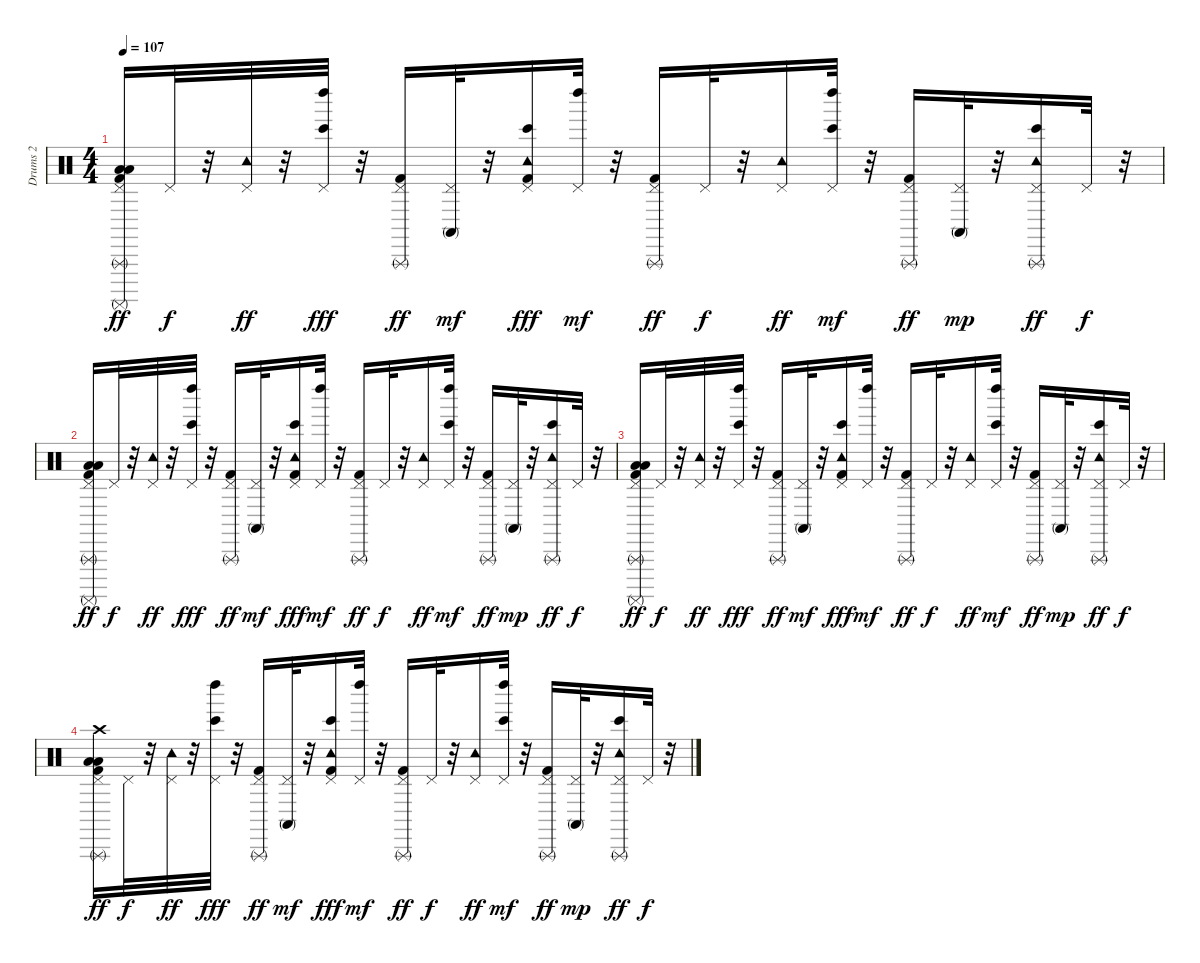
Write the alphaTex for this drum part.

\track ("Drums 2" "Drums 2") {instrument percussion}
\staff {score}
\articulation defaults
\ts (4 4)
\tempo 107
\clef neutral
\ks c
("Kick (hit) 2" "Pedal Hi-Hat (hit)" "Low Tom (hit)" "Low Floor Tom (hit)" "Surdo (mute)" "Triangle (rnute)").16{dy ff} "Pedal Hi-Hat (hit)".32{dy f} r.32 ("Tambourine (hit)" "Pedal Hi-Hat (hit)").32{dy ff} r.32 ("Pedal Hi-Hat (hit)" "Bongo High (hit)" "Left Maraca (hit)").32{dy fff} r.32 ("Kick (hit) 2" "Pedal Hi-Hat (hit)" "Triangle (rnute)").16{dy ff} ("Pedal Hi-Hat (hit)" "Conga high (mute)").32{dy mf} r.32 ("Kick (hit) 2" "Tambourine (hit)" "Pedal Hi-Hat (hit)" "Bongo High (hit)").16{dy fff} ("Pedal Hi-Hat (hit)" "Left Maraca (hit)").32{dy mf} r.32 ("Kick (hit) 2" "Pedal Hi-Hat (hit)" "Triangle (rnute)").16{dy ff} "Pedal Hi-Hat (hit)".32{dy f} r.32 ("Tambourine (hit)" "Pedal Hi-Hat (hit)").16{dy ff} ("Pedal Hi-Hat (hit)" "Bongo High (hit)" "Left Maraca (hit)").32{dy mf} r.32 ("Kick (hit) 2" "Pedal Hi-Hat (hit)" "Triangle (rnute)").16{dy ff} ("Pedal Hi-Hat (hit)" "Conga high (mute)").32{dy mp} r.32 ("Tambourine (hit)" "Pedal Hi-Hat (hit)" "Bongo High (hit)" "Triangle (rnute)").16{dy ff} "Pedal Hi-Hat (hit)".32{dy f} r.32 |
("Kick (hit) 2" "Pedal Hi-Hat (hit)" "Low Tom (hit)" "Low Floor Tom (hit)" "Surdo (mute)" "Triangle (rnute)").16{dy ff} "Pedal Hi-Hat (hit)".32{dy f} r.32 ("Tambourine (hit)" "Pedal Hi-Hat (hit)").32{dy ff} r.32 ("Pedal Hi-Hat (hit)" "Bongo High (hit)" "Left Maraca (hit)").32{dy fff} r.32 ("Kick (hit) 2" "Pedal Hi-Hat (hit)" "Triangle (rnute)").16{dy ff} ("Pedal Hi-Hat (hit)" "Conga high (mute)").32{dy mf} r.32 ("Kick (hit) 2" "Tambourine (hit)" "Pedal Hi-Hat (hit)" "Bongo High (hit)").16{dy fff} ("Pedal Hi-Hat (hit)" "Left Maraca (hit)").32{dy mf} r.32 ("Kick (hit) 2" "Pedal Hi-Hat (hit)" "Triangle (rnute)").16{dy ff} "Pedal Hi-Hat (hit)".32{dy f} r.32 ("Tambourine (hit)" "Pedal Hi-Hat (hit)").16{dy ff} ("Pedal Hi-Hat (hit)" "Bongo High (hit)" "Left Maraca (hit)").32{dy mf} r.32 ("Kick (hit) 2" "Pedal Hi-Hat (hit)" "Triangle (rnute)").16{dy ff} ("Pedal Hi-Hat (hit)" "Conga high (mute)").32{dy mp} r.32 ("Tambourine (hit)" "Pedal Hi-Hat (hit)" "Bongo High (hit)" "Triangle (rnute)").16{dy ff} "Pedal Hi-Hat (hit)".32{dy f} r.32 |
("Kick (hit) 2" "Pedal Hi-Hat (hit)" "Low Tom (hit)" "Low Floor Tom (hit)" "Surdo (mute)" "Triangle (rnute)").16{dy ff} "Pedal Hi-Hat (hit)".32{dy f} r.32 ("Tambourine (hit)" "Pedal Hi-Hat (hit)").32{dy ff} r.32 ("Pedal Hi-Hat (hit)" "Bongo High (hit)" "Left Maraca (hit)").32{dy fff} r.32 ("Kick (hit) 2" "Pedal Hi-Hat (hit)" "Triangle (rnute)").16{dy ff} ("Pedal Hi-Hat (hit)" "Conga high (mute)").32{dy mf} r.32 ("Kick (hit) 2" "Tambourine (hit)" "Pedal Hi-Hat (hit)" "Bongo High (hit)").16{dy fff} ("Pedal Hi-Hat (hit)" "Left Maraca (hit)").32{dy mf} r.32 ("Kick (hit) 2" "Pedal Hi-Hat (hit)" "Triangle (rnute)").16{dy ff} "Pedal Hi-Hat (hit)".32{dy f} r.32 ("Tambourine (hit)" "Pedal Hi-Hat (hit)").16{dy ff} ("Pedal Hi-Hat (hit)" "Bongo High (hit)" "Left Maraca (hit)").32{dy mf} r.32 ("Kick (hit) 2" "Pedal Hi-Hat (hit)" "Triangle (rnute)").16{dy ff} ("Pedal Hi-Hat (hit)" "Conga high (mute)").32{dy mp} r.32 ("Tambourine (hit)" "Pedal Hi-Hat (hit)" "Bongo High (hit)" "Triangle (rnute)").16{dy ff} "Pedal Hi-Hat (hit)".32{dy f} r.32 |
("Kick (hit) 2" "Pedal Hi-Hat (hit)" "Low Tom (hit)" "Low Floor Tom (hit)" "Crash high (hit)" "Triangle (rnute)").16{dy ff} "Pedal Hi-Hat (hit)".32{dy f} r.32 ("Tambourine (hit)" "Pedal Hi-Hat (hit)").32{dy ff} r.32 ("Pedal Hi-Hat (hit)" "Bongo High (hit)" "Left Maraca (hit)").32{dy fff} r.32 ("Kick (hit) 2" "Pedal Hi-Hat (hit)" "Triangle (rnute)").16{dy ff} ("Pedal Hi-Hat (hit)" "Conga high (mute)").32{dy mf} r.32 ("Kick (hit) 2" "Tambourine (hit)" "Pedal Hi-Hat (hit)" "Bongo High (hit)").16{dy fff} ("Pedal Hi-Hat (hit)" "Left Maraca (hit)").32{dy mf} r.32 ("Kick (hit) 2" "Pedal Hi-Hat (hit)" "Triangle (rnute)").16{dy ff} "Pedal Hi-Hat (hit)".32{dy f} r.32 ("Tambourine (hit)" "Pedal Hi-Hat (hit)").16{dy ff} ("Pedal Hi-Hat (hit)" "Bongo High (hit)" "Left Maraca (hit)").32{dy mf} r.32 ("Kick (hit) 2" "Pedal Hi-Hat (hit)" "Triangle (rnute)").16{dy ff} ("Pedal Hi-Hat (hit)" "Conga high (mute)").32{dy mp} r.32 ("Tambourine (hit)" "Pedal Hi-Hat (hit)" "Bongo High (hit)" "Triangle (rnute)").16{dy ff} "Pedal Hi-Hat (hit)".32{dy f} r.32
